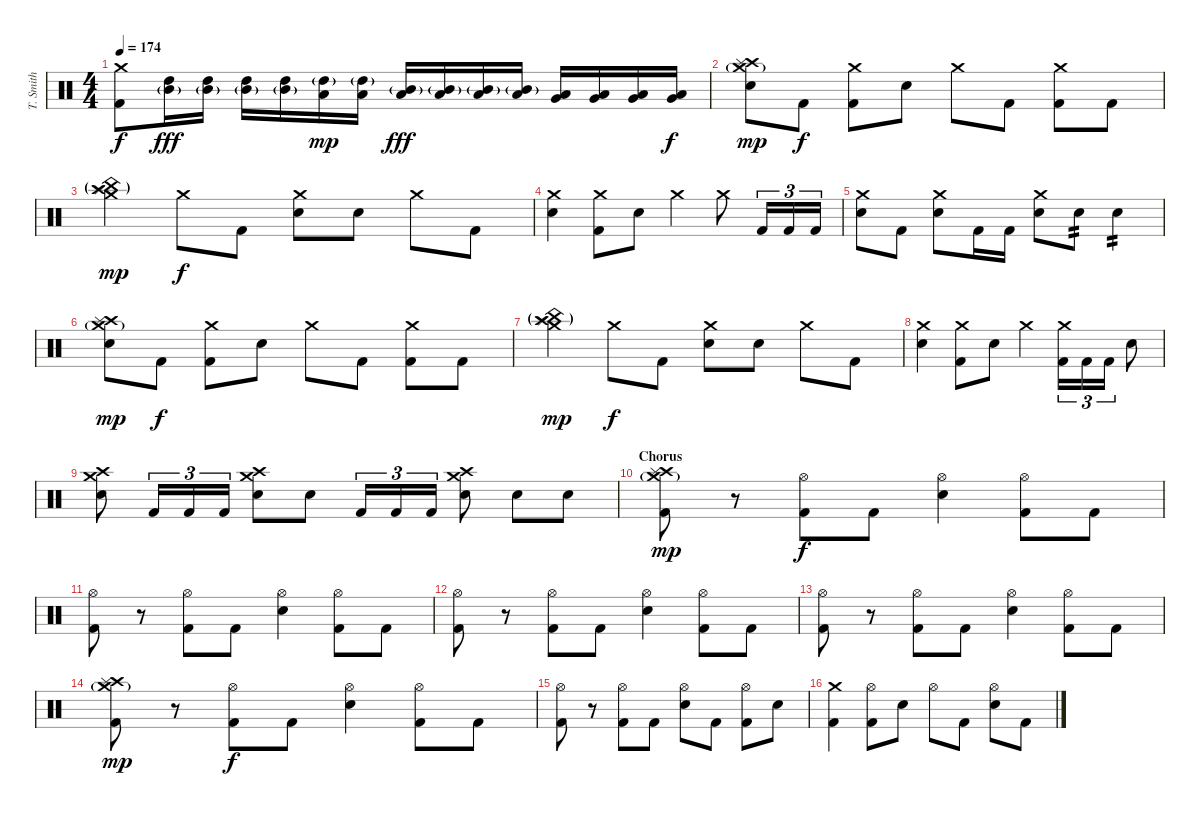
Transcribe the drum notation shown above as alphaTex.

\track ("T. Smith" "T. Smith") {instrument percussion}
\staff {score}
\articulation defaults
\ts (4 4)
\tempo 174
\clef neutral
\ks c
("Crash medium (hit)" "Kick (hit) 2").8{dy f} ("Mid Tom (hit)"{g} "High Tom (hit)").16{dy fff} ("Mid Tom (hit)"{g} "High Tom (hit)").16 ("Mid Tom (hit)"{g} "High Tom (hit)").16 ("Mid Tom (hit)"{g} "High Tom (hit)").16 ("Low Tom (hit)" "High Tom (hit)"{g}).16{dy mp} ("Low Tom (hit)" "High Tom (hit)"{g}).16 ("Mid Tom (hit)"{g} "Low Tom (hit)").16{dy fff} ("Mid Tom (hit)"{g} "Low Tom (hit)").16 ("Mid Tom (hit)"{g} "Low Tom (hit)").16 ("Mid Tom (hit)"{g} "Low Tom (hit)").16 ("Very Low Tom (hit)" "Low Tom (hit)").16 ("Very Low Tom (hit)" "Low Tom (hit)").16 ("Very Low Tom (hit)" "Low Tom (hit)").16 ("Very Low Tom (hit)" "Low Tom (hit)").16{dy f} |
("Crash medium (hit)"{g} "Crash high (hit)" "Splash (hit)" "Electric Snare (hit)").8{dy mp} "Kick (hit) 2".8{dy f} ("Crash medium (hit)" "Kick (hit) 2").8 "Electric Snare (hit)".8 "Crash medium (hit)".8 "Kick (hit) 2".8 ("Crash medium (hit)" "Kick (hit) 2").8 "Kick (hit) 2".8 |
("Crash medium (hit)" "Crash high (hit)"{g} "Splash (hit)" "China (hit)"{g}).4{dy mp} "Crash medium (hit)".8{dy f} "Kick (hit) 2".8 ("Crash medium (hit)" "Electric Snare (hit)").8 "Electric Snare (hit)".8 "Crash medium (hit)".8 "Kick (hit) 2".8 |
("Crash medium (hit)" "Electric Snare (hit)").4 ("Crash medium (hit)" "Kick (hit) 2").8 "Electric Snare (hit)".8 "Crash medium (hit)".4 "Crash medium (hit)".8 "Kick (hit) 2".16{tu (3 2)} "Kick (hit) 2".16{tu (3 2)} "Kick (hit) 2".16{tu (3 2)} |
("Crash medium (hit)" "Electric Snare (hit)").8 "Kick (hit) 2".8 ("Crash medium (hit)" "Electric Snare (hit)").8 "Kick (hit) 2".16 "Kick (hit) 2".16 ("Crash medium (hit)" "Electric Snare (hit)").8 "Electric Snare (hit)".8{tp 2} "Electric Snare (hit)".4{tp 2} |
("Crash medium (hit)"{g} "Crash high (hit)" "Splash (hit)" "Electric Snare (hit)").8{dy mp} "Kick (hit) 2".8{dy f} ("Crash medium (hit)" "Kick (hit) 2").8 "Electric Snare (hit)".8 "Crash medium (hit)".8 "Kick (hit) 2".8 ("Crash medium (hit)" "Kick (hit) 2").8 "Kick (hit) 2".8 |
("Crash medium (hit)" "Crash high (hit)"{g} "Splash (hit)" "China (hit)"{g}).4{dy mp} "Crash medium (hit)".8{dy f} "Kick (hit) 2".8 ("Crash medium (hit)" "Electric Snare (hit)").8 "Electric Snare (hit)".8 "Crash medium (hit)".8 "Kick (hit) 2".8 |
("Crash medium (hit)" "Electric Snare (hit)").4 ("Crash medium (hit)" "Kick (hit) 2").8 "Electric Snare (hit)".8 "Crash medium (hit)".4 ("Crash medium (hit)" "Kick (hit) 2").16{tu (3 2)} "Kick (hit) 2".16{tu (3 2)} "Kick (hit) 2".16{tu (3 2)} "Electric Snare (hit)".8 |
("Crash medium (hit)" "Crash high (hit)" "Electric Snare (hit)").8 "Kick (hit) 2".16{tu (3 2)} "Kick (hit) 2".16{tu (3 2)} "Kick (hit) 2".16{tu (3 2)} ("Crash medium (hit)" "Crash high (hit)" "Electric Snare (hit)").8 "Electric Snare (hit)".8 "Kick (hit) 2".16{tu (3 2)} "Kick (hit) 2".16{tu (3 2)} "Kick (hit) 2".16{tu (3 2)} ("Crash medium (hit)" "Crash high (hit)" "Electric Snare (hit)").8 "Electric Snare (hit)".8 "Electric Snare (hit)".8 |
\section ("" "Chorus")
("Crash medium (hit)"{g} "Crash high (hit)" "Splash (hit)" "Kick (hit) 2").8{dy mp} r.8 ("Hi-Hat (open)" "Kick (hit) 2").8{dy f} "Kick (hit) 2".8 ("Hi-Hat (open)" "Electric Snare (hit)").4 ("Hi-Hat (open)" "Kick (hit) 2").8 "Kick (hit) 2".8 |
("Hi-Hat (open)" "Kick (hit) 2").8 r.8 ("Hi-Hat (open)" "Kick (hit) 2").8 "Kick (hit) 2".8 ("Hi-Hat (open)" "Electric Snare (hit)").4 ("Hi-Hat (open)" "Kick (hit) 2").8 "Kick (hit) 2".8 |
("Hi-Hat (open)" "Kick (hit) 2").8 r.8 ("Hi-Hat (open)" "Kick (hit) 2").8 "Kick (hit) 2".8 ("Hi-Hat (open)" "Electric Snare (hit)").4 ("Hi-Hat (open)" "Kick (hit) 2").8 "Kick (hit) 2".8 |
("Hi-Hat (open)" "Kick (hit) 2").8 r.8 ("Hi-Hat (open)" "Kick (hit) 2").8 "Kick (hit) 2".8 ("Hi-Hat (open)" "Electric Snare (hit)").4 ("Hi-Hat (open)" "Kick (hit) 2").8 "Kick (hit) 2".8 |
("Crash medium (hit)"{g} "Crash high (hit)" "Splash (hit)" "Kick (hit) 2").8{dy mp} r.8 ("Hi-Hat (open)" "Kick (hit) 2").8{dy f} "Kick (hit) 2".8 ("Hi-Hat (open)" "Electric Snare (hit)").4 ("Hi-Hat (open)" "Kick (hit) 2").8 "Kick (hit) 2".8 |
("Hi-Hat (open)" "Kick (hit) 2").8 r.8 ("Hi-Hat (open)" "Kick (hit) 2").8 "Kick (hit) 2".8 ("Hi-Hat (open)" "Electric Snare (hit)").8 "Kick (hit) 2".8 ("Hi-Hat (open)" "Kick (hit) 2").8 "Electric Snare (hit)".8 |
("Crash medium (hit)" "Kick (hit) 2").4 ("Hi-Hat (open)" "Kick (hit) 2").8 "Electric Snare (hit)".8 "Hi-Hat (open)".8 "Kick (hit) 2".8 ("Hi-Hat (open)" "Electric Snare (hit)").8 "Kick (hit) 2".8
